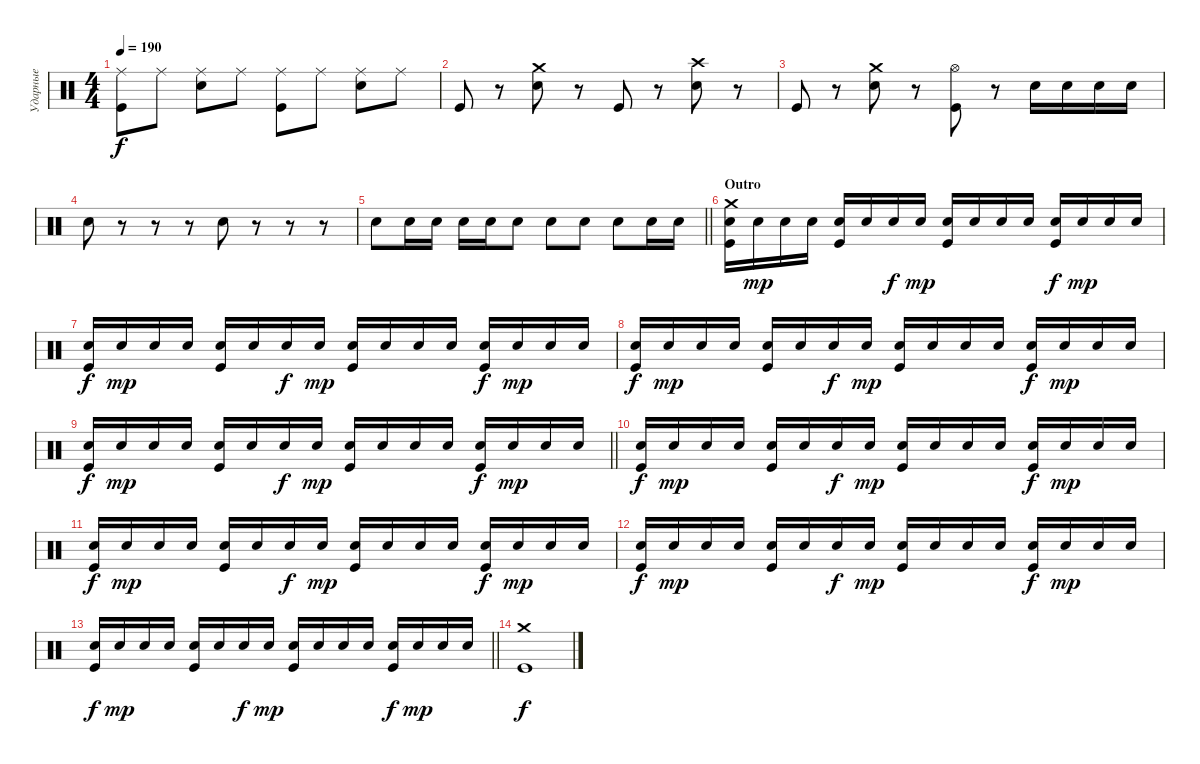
\track ("Ударные" "Ударные") {instrument percussion}
\staff {score}
\articulation defaults
\ts (4 4)
\tempo 190
\clef neutral
\ks c
("Ride (middle)" "Kick (hit)").8{dy f} "Ride (middle)".8 ("Ride (middle)" "Electric Snare (hit)").8 "Ride (middle)".8 ("Ride (middle)" "Kick (hit)").8 "Ride (middle)".8 ("Ride (middle)" "Electric Snare (hit)").8 "Ride (middle)".8 |
"Kick (hit)".8 r.8 ("Crash medium (hit)" "Electric Snare (hit)").8 r.8 "Kick (hit)".8 r.8 ("Crash high (hit)" "Electric Snare (hit)").8 r.8 |
"Kick (hit)".8 r.8 ("Crash medium (hit)" "Electric Snare (hit)").8 r.8 ("Hi-Hat (open)" "Kick (hit)").8 r.8 "Electric Snare (hit)".16 "Electric Snare (hit)".16 "Electric Snare (hit)".16 "Electric Snare (hit)".16 |
"Electric Snare (hit)".8 r.8 r.8 r.8 "Electric Snare (hit)".8 r.8 r.8 r.8 |
\barLineRight lightlight "Electric Snare (hit)".8 "Electric Snare (hit)".16 "Electric Snare (hit)".16 "Electric Snare (hit)".16 "Electric Snare (hit)".16 "Electric Snare (hit)".8 "Electric Snare (hit)".8 "Electric Snare (hit)".8 "Electric Snare (hit)".8 "Electric Snare (hit)".16 "Electric Snare (hit)".16
|
\section ("" "Outro")
("Crash medium (hit)" "Electric Snare (hit)" "Kick (hit)").16 "Electric Snare (hit)".16{dy mp} "Electric Snare (hit)".16 "Electric Snare (hit)".16 ("Electric Snare (hit)" "Kick (hit)").16 "Electric Snare (hit)".16 "Electric Snare (hit)".16{dy f} "Electric Snare (hit)".16{dy mp} ("Electric Snare (hit)" "Kick (hit)").16 "Electric Snare (hit)".16 "Electric Snare (hit)".16 "Electric Snare (hit)".16 ("Electric Snare (hit)" "Kick (hit)").16{dy f} "Electric Snare (hit)".16{dy mp} "Electric Snare (hit)".16 "Electric Snare (hit)".16 |
("Electric Snare (hit)" "Kick (hit)").16{dy f} "Electric Snare (hit)".16{dy mp} "Electric Snare (hit)".16 "Electric Snare (hit)".16 ("Electric Snare (hit)" "Kick (hit)").16 "Electric Snare (hit)".16 "Electric Snare (hit)".16{dy f} "Electric Snare (hit)".16{dy mp} ("Electric Snare (hit)" "Kick (hit)").16 "Electric Snare (hit)".16 "Electric Snare (hit)".16 "Electric Snare (hit)".16 ("Electric Snare (hit)" "Kick (hit)").16{dy f} "Electric Snare (hit)".16{dy mp} "Electric Snare (hit)".16 "Electric Snare (hit)".16 |
("Electric Snare (hit)" "Kick (hit)").16{dy f} "Electric Snare (hit)".16{dy mp} "Electric Snare (hit)".16 "Electric Snare (hit)".16 ("Electric Snare (hit)" "Kick (hit)").16 "Electric Snare (hit)".16 "Electric Snare (hit)".16{dy f} "Electric Snare (hit)".16{dy mp} ("Electric Snare (hit)" "Kick (hit)").16 "Electric Snare (hit)".16 "Electric Snare (hit)".16 "Electric Snare (hit)".16 ("Electric Snare (hit)" "Kick (hit)").16{dy f} "Electric Snare (hit)".16{dy mp} "Electric Snare (hit)".16 "Electric Snare (hit)".16 |
\barLineRight lightlight
("Electric Snare (hit)" "Kick (hit)").16{dy f} "Electric Snare (hit)".16{dy mp} "Electric Snare (hit)".16 "Electric Snare (hit)".16 ("Electric Snare (hit)" "Kick (hit)").16 "Electric Snare (hit)".16 "Electric Snare (hit)".16{dy f} "Electric Snare (hit)".16{dy mp} ("Electric Snare (hit)" "Kick (hit)").16 "Electric Snare (hit)".16 "Electric Snare (hit)".16 "Electric Snare (hit)".16 ("Electric Snare (hit)" "Kick (hit)").16{dy f} "Electric Snare (hit)".16{dy mp} "Electric Snare (hit)".16 "Electric Snare (hit)".16 |
("Electric Snare (hit)" "Kick (hit)").16{dy f} "Electric Snare (hit)".16{dy mp} "Electric Snare (hit)".16 "Electric Snare (hit)".16 ("Electric Snare (hit)" "Kick (hit)").16 "Electric Snare (hit)".16 "Electric Snare (hit)".16{dy f} "Electric Snare (hit)".16{dy mp} ("Electric Snare (hit)" "Kick (hit)").16 "Electric Snare (hit)".16 "Electric Snare (hit)".16 "Electric Snare (hit)".16 ("Electric Snare (hit)" "Kick (hit)").16{dy f} "Electric Snare (hit)".16{dy mp} "Electric Snare (hit)".16 "Electric Snare (hit)".16 |
("Electric Snare (hit)" "Kick (hit)").16{dy f} "Electric Snare (hit)".16{dy mp} "Electric Snare (hit)".16 "Electric Snare (hit)".16 ("Electric Snare (hit)" "Kick (hit)").16 "Electric Snare (hit)".16 "Electric Snare (hit)".16{dy f} "Electric Snare (hit)".16{dy mp} ("Electric Snare (hit)" "Kick (hit)").16 "Electric Snare (hit)".16 "Electric Snare (hit)".16 "Electric Snare (hit)".16 ("Electric Snare (hit)" "Kick (hit)").16{dy f} "Electric Snare (hit)".16{dy mp} "Electric Snare (hit)".16 "Electric Snare (hit)".16 |
("Electric Snare (hit)" "Kick (hit)").16{dy f} "Electric Snare (hit)".16{dy mp} "Electric Snare (hit)".16 "Electric Snare (hit)".16 ("Electric Snare (hit)" "Kick (hit)").16 "Electric Snare (hit)".16 "Electric Snare (hit)".16{dy f} "Electric Snare (hit)".16{dy mp} ("Electric Snare (hit)" "Kick (hit)").16 "Electric Snare (hit)".16 "Electric Snare (hit)".16 "Electric Snare (hit)".16 ("Electric Snare (hit)" "Kick (hit)").16{dy f} "Electric Snare (hit)".16{dy mp} "Electric Snare (hit)".16 "Electric Snare (hit)".16 |
\barLineRight lightlight
("Electric Snare (hit)" "Kick (hit)").16{dy f} "Electric Snare (hit)".16{dy mp} "Electric Snare (hit)".16 "Electric Snare (hit)".16 ("Electric Snare (hit)" "Kick (hit)").16 "Electric Snare (hit)".16 "Electric Snare (hit)".16{dy f} "Electric Snare (hit)".16{dy mp} ("Electric Snare (hit)" "Kick (hit)").16 "Electric Snare (hit)".16 "Electric Snare (hit)".16 "Electric Snare (hit)".16 ("Electric Snare (hit)" "Kick (hit)").16{dy f} "Electric Snare (hit)".16{dy mp} "Electric Snare (hit)".16 "Electric Snare (hit)".16 |
("Crash medium (hit)" "Kick (hit)").1{dy f}
